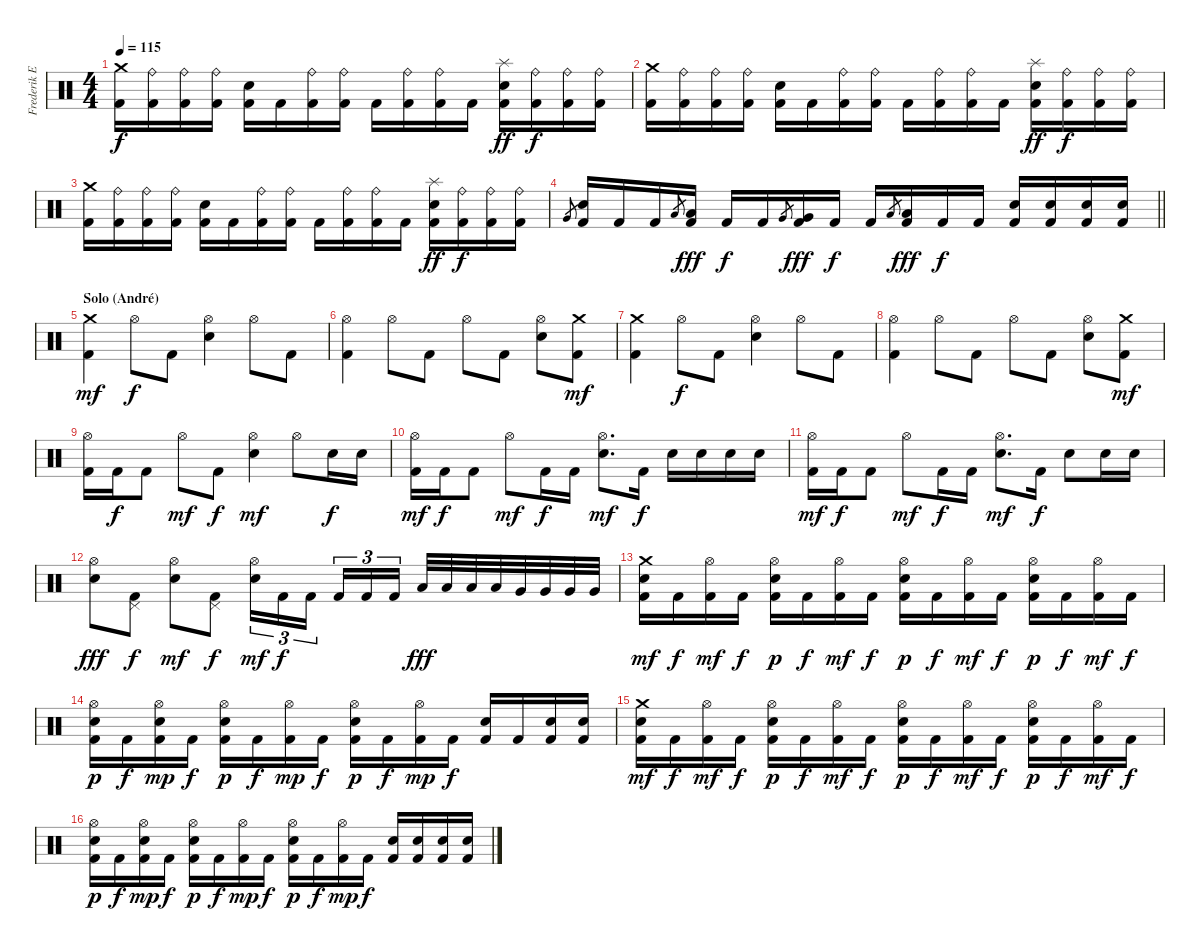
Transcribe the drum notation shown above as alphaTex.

\track ("Frederik Ehmke" "Frederik E") {instrument percussion}
\staff {score}
\articulation defaults
\ts (4 4)
\tempo 115
\clef neutral
\ks c
("Crash medium (hit)" "Kick (hit) 2").16{dy f} ("Ride (bell)" "Kick (hit) 2").16 ("Ride (bell)" "Kick (hit) 2").16 ("Ride (bell)" "Kick (hit) 2").16 ("Electric Snare (hit)" "Kick (hit) 2").16 "Kick (hit) 2".16 ("Ride (bell)" "Kick (hit) 2").16 ("Ride (bell)" "Kick (hit) 2").16 "Kick (hit) 2".16 ("Ride (bell)" "Kick (hit) 2").16 ("Ride (bell)" "Kick (hit) 2").16 "Kick (hit) 2".16 ("Splash (hit)" "Electric Snare (hit)" "Kick (hit) 2").16{dy ff} ("Ride (bell)" "Kick (hit) 2").16{dy f} ("Ride (bell)" "Kick (hit) 2").16 ("Ride (bell)" "Kick (hit) 2").16 |
("Crash medium (hit)" "Kick (hit) 2").16 ("Ride (bell)" "Kick (hit) 2").16 ("Ride (bell)" "Kick (hit) 2").16 ("Ride (bell)" "Kick (hit) 2").16 ("Electric Snare (hit)" "Kick (hit) 2").16 "Kick (hit) 2".16 ("Ride (bell)" "Kick (hit) 2").16 ("Ride (bell)" "Kick (hit) 2").16 "Kick (hit) 2".16 ("Ride (bell)" "Kick (hit) 2").16 ("Ride (bell)" "Kick (hit) 2").16 "Kick (hit) 2".16 ("Splash (hit)" "Electric Snare (hit)" "Kick (hit) 2").16{dy ff} ("Ride (bell)" "Kick (hit) 2").16{dy f} ("Ride (bell)" "Kick (hit) 2").16 ("Ride (bell)" "Kick (hit) 2").16 |
("Crash medium (hit)" "Kick (hit) 2").16 ("Ride (bell)" "Kick (hit) 2").16 ("Ride (bell)" "Kick (hit) 2").16 ("Ride (bell)" "Kick (hit) 2").16 ("Electric Snare (hit)" "Kick (hit) 2").16 "Kick (hit) 2".16 ("Ride (bell)" "Kick (hit) 2").16 ("Ride (bell)" "Kick (hit) 2").16 "Kick (hit) 2".16 ("Ride (bell)" "Kick (hit) 2").16 ("Ride (bell)" "Kick (hit) 2").16 "Kick (hit) 2".16 ("Splash (hit)" "Electric Snare (hit)" "Kick (hit) 2").16{dy ff} ("Ride (bell)" "Kick (hit) 2").16{dy f} ("Ride (bell)" "Kick (hit) 2").16 ("Ride (bell)" "Kick (hit) 2").16 |
\barLineRight lightlight "Very Low Tom (hit)".8{gr}
("Electric Snare (hit)" "Kick (hit) 2").16 "Kick (hit) 2".16 "Kick (hit) 2".16 "Low Tom (hit)".8{gr} ("Low Tom (hit)" "Kick (hit) 2").16{dy fff} "Kick (hit) 2".16{dy f} "Kick (hit) 2".16 "Very Low Tom (hit)".8{gr} ("Very Low Tom (hit)" "Kick (hit) 2").16{dy fff} "Kick (hit) 2".16{dy f} "Kick (hit) 2".16 "Low Floor Tom (hit)".8{gr} ("Low Floor Tom (hit)" "Kick (hit) 2").16{dy fff} "Kick (hit) 2".16{dy f} "Kick (hit) 2".16 ("Electric Snare (hit)" "Kick (hit) 2").16 ("Electric Snare (hit)" "Kick (hit) 2").16 ("Electric Snare (hit)" "Kick (hit) 2").16 ("Electric Snare (hit)" "Kick (hit) 2").16 |
\section ("" "Solo (André)")
("Crash medium (hit)" "Kick (hit) 2").4{dy mf} "Hi-Hat (open)".8{dy f} "Kick (hit) 2".8 ("Hi-Hat (open)" "Electric Snare (hit)").4 "Hi-Hat (open)".8 "Kick (hit) 2".8 |
("Hi-Hat (open)" "Kick (hit) 2").4 "Hi-Hat (open)".8 "Kick (hit) 2".8 "Hi-Hat (open)".8 "Kick (hit) 2".8 ("Hi-Hat (open)" "Electric Snare (hit)").8 ("Crash medium (hit)" "Kick (hit) 2").8{dy mf} |
("Crash medium (hit)" "Kick (hit) 2").4 "Hi-Hat (open)".8{dy f} "Kick (hit) 2".8 ("Hi-Hat (open)" "Electric Snare (hit)").4 "Hi-Hat (open)".8 "Kick (hit) 2".8 |
("Hi-Hat (open)" "Kick (hit) 2").4 "Hi-Hat (open)".8 "Kick (hit) 2".8 "Hi-Hat (open)".8 "Kick (hit) 2".8 ("Hi-Hat (open)" "Electric Snare (hit)").8 ("Crash medium (hit)" "Kick (hit) 2").8{dy mf} |
("Hi-Hat (open)" "Kick (hit) 2").16 "Kick (hit) 2".16{dy f} "Kick (hit) 2".8 "Hi-Hat (open)".8{dy mf} "Kick (hit) 2".8{dy f} ("Hi-Hat (open)" "Electric Snare (hit)").4{dy mf} "Hi-Hat (open)".8 "Electric Snare (hit)".16{dy f} "Electric Snare (hit)".16 |
("Hi-Hat (open)" "Kick (hit) 2").16{dy mf} "Kick (hit) 2".16{dy f} "Kick (hit) 2".8 "Hi-Hat (open)".8{dy mf} "Kick (hit) 2".16{dy f} "Kick (hit) 2".16 ("Hi-Hat (open)" "Electric Snare (hit)").8{d dy mf} "Kick (hit) 2".16{dy f} "Electric Snare (hit)".16 "Electric Snare (hit)".16 "Electric Snare (hit)".16 "Electric Snare (hit)".16 |
("Hi-Hat (open)" "Kick (hit) 2").16{dy mf} "Kick (hit) 2".16{dy f} "Kick (hit) 2".8 "Hi-Hat (open)".8{dy mf} "Kick (hit) 2".16{dy f} "Kick (hit) 2".16 ("Hi-Hat (open)" "Electric Snare (hit)").8{d dy mf} "Kick (hit) 2".16{dy f} "Electric Snare (hit)".8 "Electric Snare (hit)".16 "Electric Snare (hit)".16 |
("Hi-Hat (open)" "Electric Snare (hit)").8{dy fff} ("Pedal Hi-Hat (hit)" "Kick (hit) 2").8{dy f} ("Hi-Hat (open)" "Electric Snare (hit)").8{dy mf} ("Pedal Hi-Hat (hit)" "Kick (hit) 2").8{dy f} ("Hi-Hat (open)" "Electric Snare (hit)").16{tu (3 2) dy mf} "Kick (hit) 2".16{tu (3 2) dy f} "Kick (hit) 2".16{tu (3 2) beam splitsecondary} "Kick (hit) 2".16{tu (3 2)} "Kick (hit) 2".16{tu (3 2)} "Kick (hit) 2".16{tu (3 2)} "Low Tom (hit)".32{dy fff} "Low Tom (hit)".32 "Low Tom (hit)".32 "Low Tom (hit)".32 "Very Low Tom (hit)".32 "Very Low Tom (hit)".32 "Very Low Tom (hit)".32 "Very Low Tom (hit)".32 |
("Crash medium (hit)" "Electric Snare (hit)" "Kick (hit) 2").16{dy mf} "Kick (hit) 2".16{dy f} ("Hi-Hat (open)" "Kick (hit) 2").16{dy mf} "Kick (hit) 2".16{dy f} ("Hi-Hat (open)" "Electric Snare (hit)" "Kick (hit) 2").16{dy p} "Kick (hit) 2".16{dy f} ("Hi-Hat (open)" "Kick (hit) 2").16{dy mf} "Kick (hit) 2".16{dy f} ("Hi-Hat (open)" "Electric Snare (hit)" "Kick (hit) 2").16{dy p} "Kick (hit) 2".16{dy f} ("Hi-Hat (open)" "Kick (hit) 2").16{dy mf} "Kick (hit) 2".16{dy f} ("Hi-Hat (open)" "Electric Snare (hit)" "Kick (hit) 2").16{dy p} "Kick (hit) 2".16{dy f} ("Hi-Hat (open)" "Kick (hit) 2").16{dy mf} "Kick (hit) 2".16{dy f} |
("Hi-Hat (open)" "Electric Snare (hit)" "Kick (hit) 2").16{dy p} "Kick (hit) 2".16{dy f} ("Hi-Hat (open)" "Electric Snare (hit)" "Kick (hit) 2").16{dy mp} "Kick (hit) 2".16{dy f} ("Hi-Hat (open)" "Electric Snare (hit)" "Kick (hit) 2").16{dy p} "Kick (hit) 2".16{dy f} ("Hi-Hat (open)" "Kick (hit) 2").16{dy mp} "Kick (hit) 2".16{dy f} ("Hi-Hat (open)" "Electric Snare (hit)" "Kick (hit) 2").16{dy p} "Kick (hit) 2".16{dy f} ("Hi-Hat (open)" "Kick (hit) 2").16{dy mp} "Kick (hit) 2".16{dy f} ("Electric Snare (hit)" "Kick (hit) 2").16 "Kick (hit) 2".16 ("Electric Snare (hit)" "Kick (hit) 2").16 ("Electric Snare (hit)" "Kick (hit) 2").16 |
("Crash medium (hit)" "Electric Snare (hit)" "Kick (hit) 2").16{dy mf} "Kick (hit) 2".16{dy f} ("Hi-Hat (open)" "Kick (hit) 2").16{dy mf} "Kick (hit) 2".16{dy f} ("Hi-Hat (open)" "Electric Snare (hit)" "Kick (hit) 2").16{dy p} "Kick (hit) 2".16{dy f} ("Hi-Hat (open)" "Kick (hit) 2").16{dy mf} "Kick (hit) 2".16{dy f} ("Hi-Hat (open)" "Electric Snare (hit)" "Kick (hit) 2").16{dy p} "Kick (hit) 2".16{dy f} ("Hi-Hat (open)" "Kick (hit) 2").16{dy mf} "Kick (hit) 2".16{dy f} ("Hi-Hat (open)" "Electric Snare (hit)" "Kick (hit) 2").16{dy p} "Kick (hit) 2".16{dy f} ("Hi-Hat (open)" "Kick (hit) 2").16{dy mf} "Kick (hit) 2".16{dy f} |
("Hi-Hat (open)" "Electric Snare (hit)" "Kick (hit) 2").16{dy p} "Kick (hit) 2".16{dy f} ("Hi-Hat (open)" "Electric Snare (hit)" "Kick (hit) 2").16{dy mp} "Kick (hit) 2".16{dy f} ("Hi-Hat (open)" "Electric Snare (hit)" "Kick (hit) 2").16{dy p} "Kick (hit) 2".16{dy f} ("Hi-Hat (open)" "Kick (hit) 2").16{dy mp} "Kick (hit) 2".16{dy f} ("Hi-Hat (open)" "Electric Snare (hit)" "Kick (hit) 2").16{dy p} "Kick (hit) 2".16{dy f} ("Hi-Hat (open)" "Kick (hit) 2").16{dy mp} "Kick (hit) 2".16{dy f} ("Electric Snare (hit)" "Kick (hit) 2").16 ("Electric Snare (hit)" "Kick (hit) 2").16 ("Electric Snare (hit)" "Kick (hit) 2").16 ("Electric Snare (hit)" "Kick (hit) 2").16
